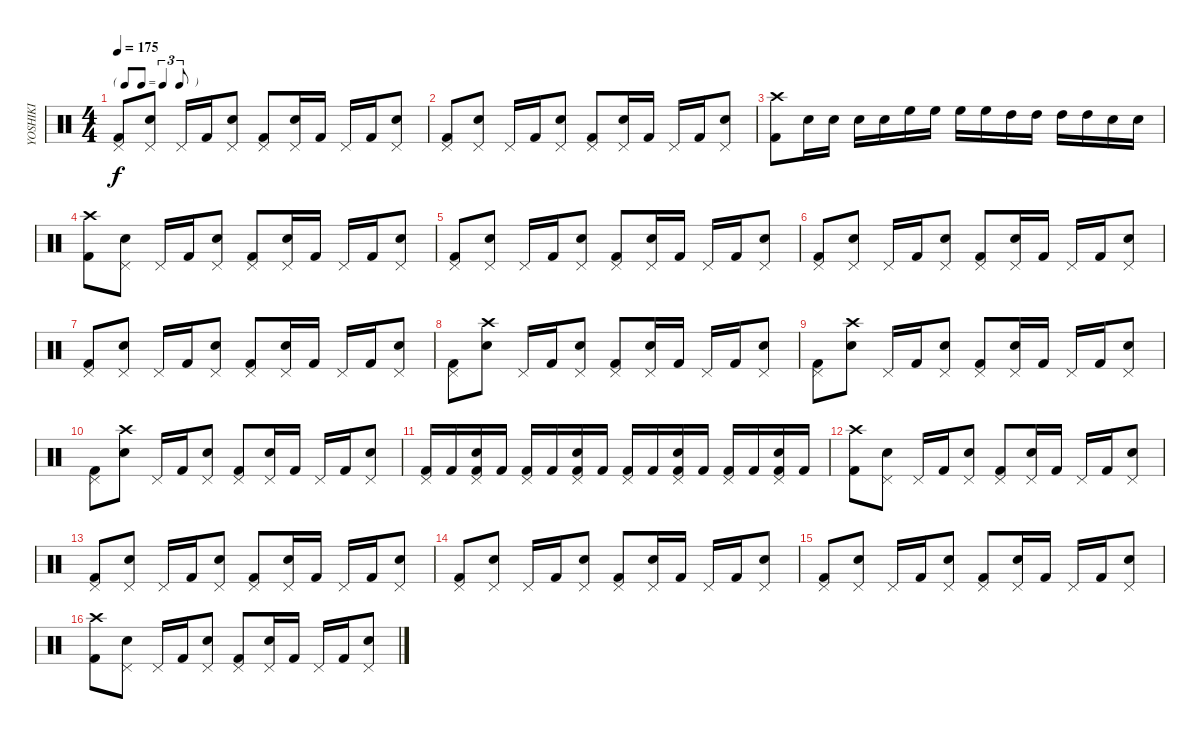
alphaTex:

\track ("YOSHIKI" "YOSHIKI") {instrument percussion}
\staff {score}
\articulation defaults
\ts (4 4)
\tf triplet8th
\tempo 175
\clef neutral
\ks c
("Pedal Hi-Hat (hit)" "Kick (hit) 2").8{dy f} ("Pedal Hi-Hat (hit)" "Snare (hit) 2").8 "Pedal Hi-Hat (hit)".16 "Kick (hit) 2".16 ("Pedal Hi-Hat (hit)" "Snare (hit) 2").8 ("Pedal Hi-Hat (hit)" "Kick (hit) 2").8 ("Pedal Hi-Hat (hit)" "Snare (hit) 2").16 "Kick (hit) 2".16 "Pedal Hi-Hat (hit)".16 "Kick (hit) 2".16 ("Pedal Hi-Hat (hit)" "Snare (hit) 2").8 |
("Pedal Hi-Hat (hit)" "Kick (hit) 2").8 ("Pedal Hi-Hat (hit)" "Snare (hit) 2").8 "Pedal Hi-Hat (hit)".16 "Kick (hit) 2".16 ("Pedal Hi-Hat (hit)" "Snare (hit) 2").8 ("Pedal Hi-Hat (hit)" "Kick (hit) 2").8 ("Pedal Hi-Hat (hit)" "Snare (hit) 2").16 "Kick (hit) 2".16 "Pedal Hi-Hat (hit)".16 "Kick (hit) 2".16 ("Pedal Hi-Hat (hit)" "Snare (hit) 2").8 |
("Crash high (hit)" "Kick (hit) 2").8 "Snare (hit) 2".16 "Snare (hit) 2".16 "Snare (hit) 2".16 "Snare (hit) 2".16 "High Floor Tom (hit)".16 "High Floor Tom (hit)".16 "High Floor Tom (hit)".16 "High Floor Tom (hit)".16 "High Tom (hit)".16 "High Tom (hit)".16 "High Tom (hit)".16 "High Tom (hit)".16 "Snare (hit) 2".16 "Snare (hit) 2".16 |
("Crash high (hit)" "Kick (hit) 2").8 ("Pedal Hi-Hat (hit)" "Snare (hit) 2").8 "Pedal Hi-Hat (hit)".16 "Kick (hit) 2".16 ("Pedal Hi-Hat (hit)" "Snare (hit) 2").8 ("Pedal Hi-Hat (hit)" "Kick (hit) 2").8 ("Pedal Hi-Hat (hit)" "Snare (hit) 2").16 "Kick (hit) 2".16 "Pedal Hi-Hat (hit)".16 "Kick (hit) 2".16 ("Pedal Hi-Hat (hit)" "Snare (hit) 2").8 |
("Pedal Hi-Hat (hit)" "Kick (hit) 2").8 ("Pedal Hi-Hat (hit)" "Snare (hit) 2").8 "Pedal Hi-Hat (hit)".16 "Kick (hit) 2".16 ("Pedal Hi-Hat (hit)" "Snare (hit) 2").8 ("Pedal Hi-Hat (hit)" "Kick (hit) 2").8 ("Pedal Hi-Hat (hit)" "Snare (hit) 2").16 "Kick (hit) 2".16 "Pedal Hi-Hat (hit)".16 "Kick (hit) 2".16 ("Pedal Hi-Hat (hit)" "Snare (hit) 2").8 |
("Pedal Hi-Hat (hit)" "Kick (hit) 2").8 ("Pedal Hi-Hat (hit)" "Snare (hit) 2").8 "Pedal Hi-Hat (hit)".16 "Kick (hit) 2".16 ("Pedal Hi-Hat (hit)" "Snare (hit) 2").8 ("Pedal Hi-Hat (hit)" "Kick (hit) 2").8 ("Pedal Hi-Hat (hit)" "Snare (hit) 2").16 "Kick (hit) 2".16 "Pedal Hi-Hat (hit)".16 "Kick (hit) 2".16 ("Pedal Hi-Hat (hit)" "Snare (hit) 2").8 |
("Pedal Hi-Hat (hit)" "Kick (hit) 2").8 ("Pedal Hi-Hat (hit)" "Snare (hit) 2").8 "Pedal Hi-Hat (hit)".16 "Kick (hit) 2".16 ("Pedal Hi-Hat (hit)" "Snare (hit) 2").8 ("Pedal Hi-Hat (hit)" "Kick (hit) 2").8 ("Pedal Hi-Hat (hit)" "Snare (hit) 2").16 "Kick (hit) 2".16 "Pedal Hi-Hat (hit)".16 "Kick (hit) 2".16 ("Pedal Hi-Hat (hit)" "Snare (hit) 2").8 |
("Pedal Hi-Hat (hit)" "Kick (hit) 2").8 ("Crash high (hit)" "Snare (hit) 2").8 "Pedal Hi-Hat (hit)".16 "Kick (hit) 2".16 ("Pedal Hi-Hat (hit)" "Snare (hit) 2").8 ("Pedal Hi-Hat (hit)" "Kick (hit) 2").8 ("Pedal Hi-Hat (hit)" "Snare (hit) 2").16 "Kick (hit) 2".16 "Pedal Hi-Hat (hit)".16 "Kick (hit) 2".16 ("Pedal Hi-Hat (hit)" "Snare (hit) 2").8 |
("Pedal Hi-Hat (hit)" "Kick (hit) 2").8 ("Crash high (hit)" "Snare (hit) 2").8 "Pedal Hi-Hat (hit)".16 "Kick (hit) 2".16 ("Pedal Hi-Hat (hit)" "Snare (hit) 2").8 ("Pedal Hi-Hat (hit)" "Kick (hit) 2").8 ("Pedal Hi-Hat (hit)" "Snare (hit) 2").16 "Kick (hit) 2".16 "Pedal Hi-Hat (hit)".16 "Kick (hit) 2".16 ("Pedal Hi-Hat (hit)" "Snare (hit) 2").8 |
("Pedal Hi-Hat (hit)" "Kick (hit) 2").8 ("Crash high (hit)" "Snare (hit) 2").8 "Pedal Hi-Hat (hit)".16 "Kick (hit) 2".16 ("Pedal Hi-Hat (hit)" "Snare (hit) 2").8 ("Pedal Hi-Hat (hit)" "Kick (hit) 2").8 ("Pedal Hi-Hat (hit)" "Snare (hit) 2").16 "Kick (hit) 2".16 "Pedal Hi-Hat (hit)".16 "Kick (hit) 2".16 ("Pedal Hi-Hat (hit)" "Snare (hit) 2").8 |
("Pedal Hi-Hat (hit)" "Kick (hit) 2").16 "Kick (hit) 2".16 ("Pedal Hi-Hat (hit)" "Snare (hit) 2" "Kick (hit) 2").16 "Kick (hit) 2".16 ("Pedal Hi-Hat (hit)" "Kick (hit) 2").16 "Kick (hit) 2".16 ("Pedal Hi-Hat (hit)" "Snare (hit) 2" "Kick (hit) 2").16 "Kick (hit) 2".16 ("Pedal Hi-Hat (hit)" "Kick (hit) 2").16 "Kick (hit) 2".16 ("Pedal Hi-Hat (hit)" "Snare (hit) 2" "Kick (hit) 2").16 "Kick (hit) 2".16 ("Pedal Hi-Hat (hit)" "Kick (hit) 2").16 "Kick (hit) 2".16 ("Pedal Hi-Hat (hit)" "Snare (hit) 2" "Kick (hit) 2").16 "Kick (hit) 2".16 |
("Crash high (hit)" "Kick (hit) 2").8 ("Pedal Hi-Hat (hit)" "Snare (hit) 2").8 "Pedal Hi-Hat (hit)".16 "Kick (hit) 2".16 ("Pedal Hi-Hat (hit)" "Snare (hit) 2").8 ("Pedal Hi-Hat (hit)" "Kick (hit) 2").8 ("Pedal Hi-Hat (hit)" "Snare (hit) 2").16 "Kick (hit) 2".16 "Pedal Hi-Hat (hit)".16 "Kick (hit) 2".16 ("Pedal Hi-Hat (hit)" "Snare (hit) 2").8 |
("Pedal Hi-Hat (hit)" "Kick (hit) 2").8 ("Pedal Hi-Hat (hit)" "Snare (hit) 2").8 "Pedal Hi-Hat (hit)".16 "Kick (hit) 2".16 ("Pedal Hi-Hat (hit)" "Snare (hit) 2").8 ("Pedal Hi-Hat (hit)" "Kick (hit) 2").8 ("Pedal Hi-Hat (hit)" "Snare (hit) 2").16 "Kick (hit) 2".16 "Pedal Hi-Hat (hit)".16 "Kick (hit) 2".16 ("Pedal Hi-Hat (hit)" "Snare (hit) 2").8 |
("Pedal Hi-Hat (hit)" "Kick (hit) 2").8 ("Pedal Hi-Hat (hit)" "Snare (hit) 2").8 "Pedal Hi-Hat (hit)".16 "Kick (hit) 2".16 ("Pedal Hi-Hat (hit)" "Snare (hit) 2").8 ("Pedal Hi-Hat (hit)" "Kick (hit) 2").8 ("Pedal Hi-Hat (hit)" "Snare (hit) 2").16 "Kick (hit) 2".16 "Pedal Hi-Hat (hit)".16 "Kick (hit) 2".16 ("Pedal Hi-Hat (hit)" "Snare (hit) 2").8 |
("Pedal Hi-Hat (hit)" "Kick (hit) 2").8 ("Pedal Hi-Hat (hit)" "Snare (hit) 2").8 "Pedal Hi-Hat (hit)".16 "Kick (hit) 2".16 ("Pedal Hi-Hat (hit)" "Snare (hit) 2").8 ("Pedal Hi-Hat (hit)" "Kick (hit) 2").8 ("Pedal Hi-Hat (hit)" "Snare (hit) 2").16 "Kick (hit) 2".16 "Pedal Hi-Hat (hit)".16 "Kick (hit) 2".16 ("Pedal Hi-Hat (hit)" "Snare (hit) 2").8 |
("Crash high (hit)" "Kick (hit) 2").8 ("Pedal Hi-Hat (hit)" "Snare (hit) 2").8 "Pedal Hi-Hat (hit)".16 "Kick (hit) 2".16 ("Pedal Hi-Hat (hit)" "Snare (hit) 2").8 ("Pedal Hi-Hat (hit)" "Kick (hit) 2").8 ("Pedal Hi-Hat (hit)" "Snare (hit) 2").16 "Kick (hit) 2".16 "Pedal Hi-Hat (hit)".16 "Kick (hit) 2".16 ("Pedal Hi-Hat (hit)" "Snare (hit) 2").8
